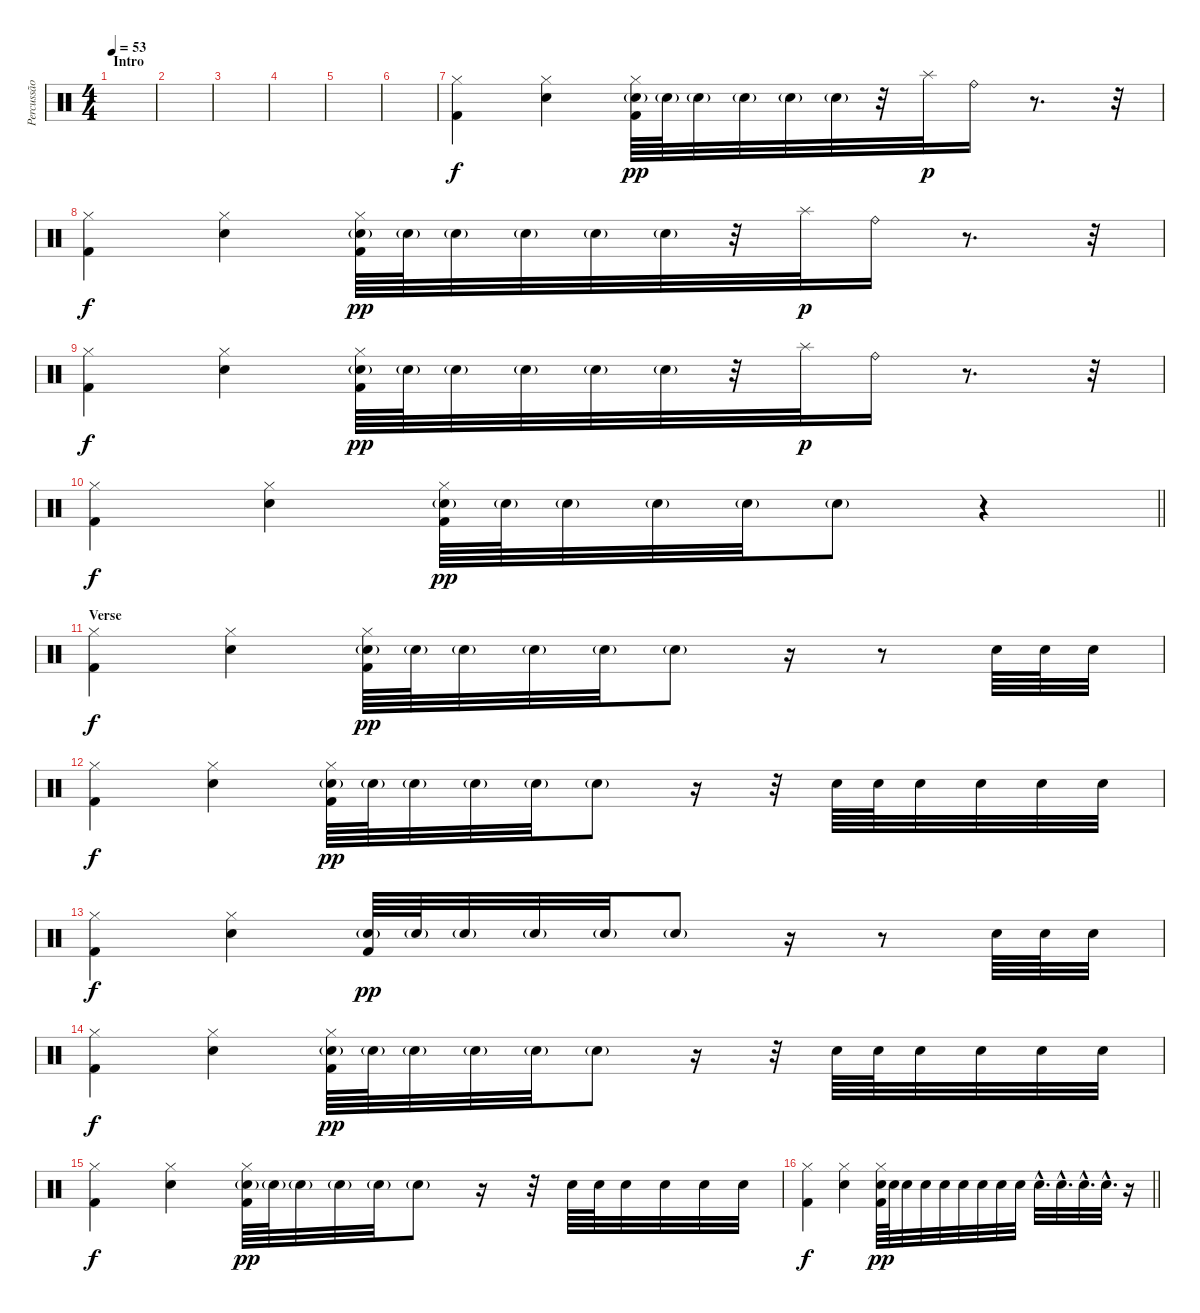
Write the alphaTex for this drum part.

\track ("Percussão" "Percussão") {instrument percussion}
\staff {score}
\articulation defaults
\ts (4 4)
\section ("" "Intro")
\tempo 53
\clef neutral
\ks c
|
|
|
|
|
|
("Hi-Hat (closed)" "Kick (hit) 2").4 ("Hi-Hat (closed)" "Electric Snare (hit)").4 ("Hi-Hat (closed)" "Electric Snare (hit)"{g} "Kick (hit) 2").64{dy pp} "Electric Snare (hit)"{g}.64 "Electric Snare (hit)"{g}.32 "Electric Snare (hit)"{g}.32 "Electric Snare (hit)"{g}.32 "Electric Snare (hit)"{g}.32 r.32 "Splash (hit)".32{dy p} "Ride (bell)".16 r.8{d} r.32 |
("Hi-Hat (closed)" "Kick (hit) 2").4{dy f} ("Hi-Hat (closed)" "Electric Snare (hit)").4 ("Hi-Hat (closed)" "Electric Snare (hit)"{g} "Kick (hit) 2").64{dy pp} "Electric Snare (hit)"{g}.64 "Electric Snare (hit)"{g}.32 "Electric Snare (hit)"{g}.32 "Electric Snare (hit)"{g}.32 "Electric Snare (hit)"{g}.32 r.32 "Splash (hit)".32{dy p} "Ride (bell)".16 r.8{d} r.32 |
("Hi-Hat (closed)" "Kick (hit) 2").4{dy f} ("Hi-Hat (closed)" "Electric Snare (hit)").4 ("Hi-Hat (closed)" "Electric Snare (hit)"{g} "Kick (hit) 2").64{dy pp} "Electric Snare (hit)"{g}.64 "Electric Snare (hit)"{g}.32 "Electric Snare (hit)"{g}.32 "Electric Snare (hit)"{g}.32 "Electric Snare (hit)"{g}.32 r.32 "Splash (hit)".32{dy p} "Ride (bell)".16 r.8{d} r.32 |
\barLineRight lightlight
("Hi-Hat (closed)" "Kick (hit) 2").4{dy f} ("Hi-Hat (closed)" "Electric Snare (hit)").4 ("Hi-Hat (closed)" "Electric Snare (hit)"{g} "Kick (hit) 2").64{dy pp} "Electric Snare (hit)"{g}.64 "Electric Snare (hit)"{g}.32 "Electric Snare (hit)"{g}.32 "Electric Snare (hit)"{g}.32 "Electric Snare (hit)"{g}.8 r.4 |
\section ("" "Verse")
("Hi-Hat (closed)" "Kick (hit) 2").4{dy f} ("Hi-Hat (closed)" "Electric Snare (hit)").4 ("Hi-Hat (closed)" "Electric Snare (hit)"{g} "Kick (hit) 2").64{dy pp} "Electric Snare (hit)"{g}.64 "Electric Snare (hit)"{g}.32 "Electric Snare (hit)"{g}.32 "Electric Snare (hit)"{g}.32 "Electric Snare (hit)"{g}.8 r.16 r.8 "Electric Snare (hit)".64 "Electric Snare (hit)".64 "Electric Snare (hit)".32 |
("Hi-Hat (closed)" "Kick (hit) 2").4{dy f} ("Hi-Hat (closed)" "Electric Snare (hit)").4 ("Hi-Hat (closed)" "Electric Snare (hit)"{g} "Kick (hit) 2").64{dy pp} "Electric Snare (hit)"{g}.64 "Electric Snare (hit)"{g}.32 "Electric Snare (hit)"{g}.32 "Electric Snare (hit)"{g}.32 "Electric Snare (hit)"{g}.8 r.16 r.32 "Electric Snare (hit)".64 "Electric Snare (hit)".64 "Electric Snare (hit)".32 "Electric Snare (hit)".32 "Electric Snare (hit)".32 "Electric Snare (hit)".32 |
("Hi-Hat (closed)" "Kick (hit) 2").4{dy f} ("Hi-Hat (closed)" "Electric Snare (hit)").4 ("Electric Snare (hit)"{g} "Kick (hit) 2").64{dy pp} "Electric Snare (hit)"{g}.64 "Electric Snare (hit)"{g}.32 "Electric Snare (hit)"{g}.32 "Electric Snare (hit)"{g}.32 "Electric Snare (hit)"{g}.8 r.16 r.8 "Electric Snare (hit)".64 "Electric Snare (hit)".64 "Electric Snare (hit)".32 |
("Hi-Hat (closed)" "Kick (hit) 2").4{dy f} ("Hi-Hat (closed)" "Electric Snare (hit)").4 ("Hi-Hat (closed)" "Electric Snare (hit)"{g} "Kick (hit) 2").64{dy pp} "Electric Snare (hit)"{g}.64 "Electric Snare (hit)"{g}.32 "Electric Snare (hit)"{g}.32 "Electric Snare (hit)"{g}.32 "Electric Snare (hit)"{g}.8 r.16 r.32 "Electric Snare (hit)".64 "Electric Snare (hit)".64 "Electric Snare (hit)".32 "Electric Snare (hit)".32 "Electric Snare (hit)".32 "Electric Snare (hit)".32 |
("Hi-Hat (closed)" "Kick (hit) 2").4{dy f} ("Hi-Hat (closed)" "Electric Snare (hit)").4 ("Hi-Hat (closed)" "Electric Snare (hit)"{g} "Kick (hit) 2").64{dy pp} "Electric Snare (hit)"{g}.64 "Electric Snare (hit)"{g}.32 "Electric Snare (hit)"{g}.32 "Electric Snare (hit)"{g}.32 "Electric Snare (hit)"{g}.8 r.16 r.32 "Electric Snare (hit)".64 "Electric Snare (hit)".64 "Electric Snare (hit)".32 "Electric Snare (hit)".32 "Electric Snare (hit)".32 "Electric Snare (hit)".32 |
\barLineRight lightlight
("Hi-Hat (closed)" "Kick (hit) 2").4{dy f} ("Hi-Hat (closed)" "Electric Snare (hit)").4 ("Hi-Hat (closed)" "Electric Snare (hit)" "Kick (hit) 2").64{dy pp} "Electric Snare (hit)".64 "Electric Snare (hit)".32 "Electric Snare (hit)".32 "Electric Snare (hit)".32 "Electric Snare (hit)".32 "Electric Snare (hit)".32 "Electric Snare (hit)".32 "Electric Snare (hit)".32 "Electric Snare (hit)"{hac}.32{d} "Electric Snare (hit)"{hac}.32{d} "Electric Snare (hit)"{hac}.32{d} "Electric Snare (hit)"{hac}.32{d} r.16
